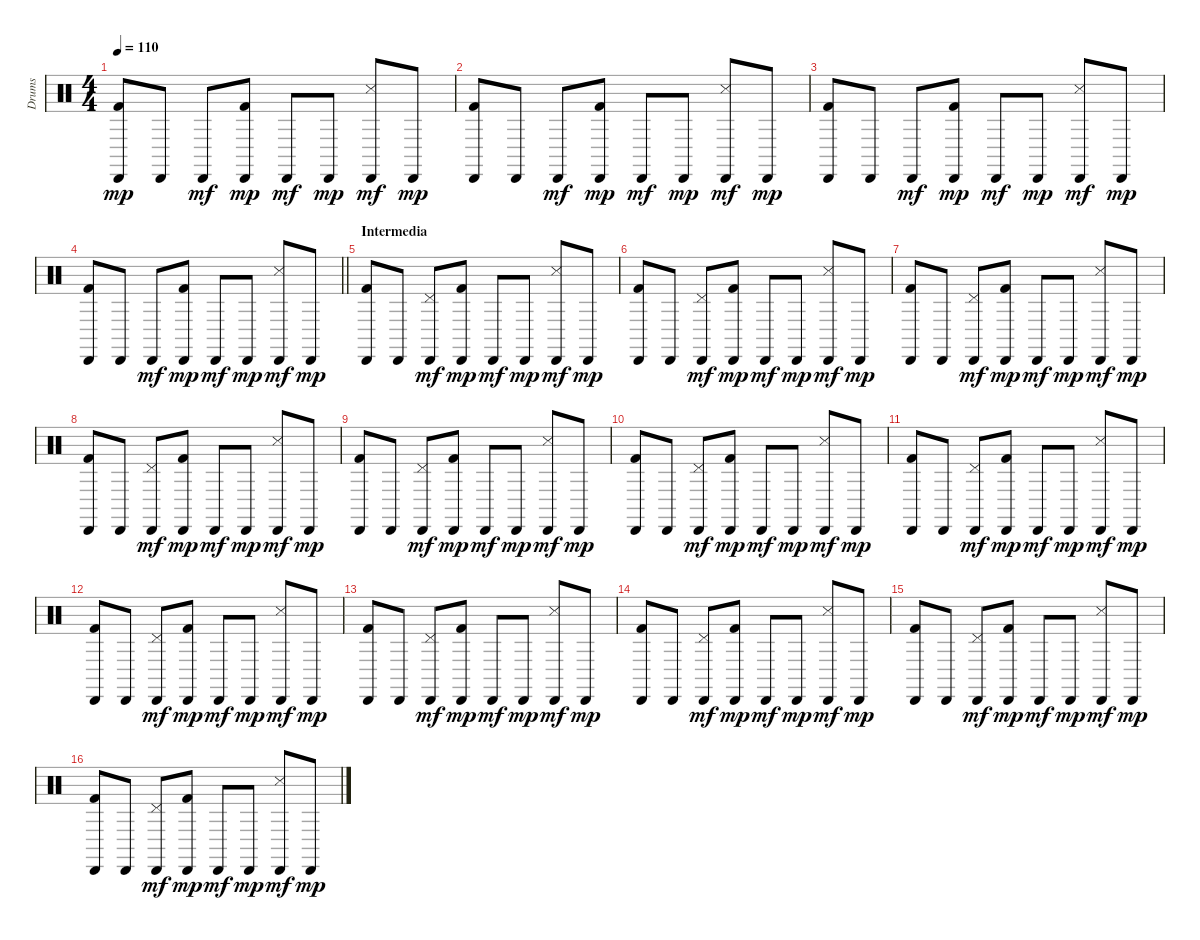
\track ("Drums" "Drums") {instrument percussion}
\staff {score}
\articulation defaults
\ts (4 4)
\tempo 110
\clef neutral
\ks c
("Cabasa (hit)" "Kick (hit) 2").8{dy mp} "Cabasa (hit)".8 "Cabasa (hit)".8{dy mf} ("Cabasa (hit)" "Kick (hit) 2").8{dy mp} "Cabasa (hit)".8{dy mf} "Cabasa (hit)".8{dy mp} ("Cabasa (hit)" "Snare (side stick) 3").8{dy mf} "Cabasa (hit)".8{dy mp} |
("Cabasa (hit)" "Kick (hit) 2").8 "Cabasa (hit)".8 "Cabasa (hit)".8{dy mf} ("Cabasa (hit)" "Kick (hit) 2").8{dy mp} "Cabasa (hit)".8{dy mf} "Cabasa (hit)".8{dy mp} ("Cabasa (hit)" "Snare (side stick) 3").8{dy mf} "Cabasa (hit)".8{dy mp} |
("Cabasa (hit)" "Kick (hit) 2").8 "Cabasa (hit)".8 "Cabasa (hit)".8{dy mf} ("Cabasa (hit)" "Kick (hit) 2").8{dy mp} "Cabasa (hit)".8{dy mf} "Cabasa (hit)".8{dy mp} ("Cabasa (hit)" "Snare (side stick) 3").8{dy mf} "Cabasa (hit)".8{dy mp} |
\barLineRight lightlight
("Cabasa (hit)" "Kick (hit) 2").8 "Cabasa (hit)".8 "Cabasa (hit)".8{dy mf} ("Cabasa (hit)" "Kick (hit) 2").8{dy mp} "Cabasa (hit)".8{dy mf} "Cabasa (hit)".8{dy mp} ("Cabasa (hit)" "Snare (side stick) 3").8{dy mf} "Cabasa (hit)".8{dy mp} |
\section ("" "Intermedia")
("Cabasa (hit)" "Kick (hit) 2").8 "Cabasa (hit)".8 ("Cabasa (hit)" "Pedal Hi-Hat (hit)").8{dy mf} ("Cabasa (hit)" "Kick (hit) 2").8{dy mp} "Cabasa (hit)".8{dy mf} "Cabasa (hit)".8{dy mp} ("Cabasa (hit)" "Snare (side stick) 3").8{dy mf} "Cabasa (hit)".8{dy mp} |
("Cabasa (hit)" "Kick (hit) 2").8 "Cabasa (hit)".8 ("Cabasa (hit)" "Pedal Hi-Hat (hit)").8{dy mf} ("Cabasa (hit)" "Kick (hit) 2").8{dy mp} "Cabasa (hit)".8{dy mf} "Cabasa (hit)".8{dy mp} ("Cabasa (hit)" "Snare (side stick) 3").8{dy mf} "Cabasa (hit)".8{dy mp} |
("Cabasa (hit)" "Kick (hit) 2").8 "Cabasa (hit)".8 ("Cabasa (hit)" "Pedal Hi-Hat (hit)").8{dy mf} ("Cabasa (hit)" "Kick (hit) 2").8{dy mp} "Cabasa (hit)".8{dy mf} "Cabasa (hit)".8{dy mp} ("Cabasa (hit)" "Snare (side stick) 3").8{dy mf} "Cabasa (hit)".8{dy mp} |
("Cabasa (hit)" "Kick (hit) 2").8 "Cabasa (hit)".8 ("Cabasa (hit)" "Pedal Hi-Hat (hit)").8{dy mf} ("Cabasa (hit)" "Kick (hit) 2").8{dy mp} "Cabasa (hit)".8{dy mf} "Cabasa (hit)".8{dy mp} ("Cabasa (hit)" "Snare (side stick) 3").8{dy mf} "Cabasa (hit)".8{dy mp} |
("Cabasa (hit)" "Kick (hit) 2").8 "Cabasa (hit)".8 ("Cabasa (hit)" "Pedal Hi-Hat (hit)").8{dy mf} ("Cabasa (hit)" "Kick (hit) 2").8{dy mp} "Cabasa (hit)".8{dy mf} "Cabasa (hit)".8{dy mp} ("Cabasa (hit)" "Snare (side stick) 3").8{dy mf} "Cabasa (hit)".8{dy mp} |
("Cabasa (hit)" "Kick (hit) 2").8 "Cabasa (hit)".8 ("Cabasa (hit)" "Pedal Hi-Hat (hit)").8{dy mf} ("Cabasa (hit)" "Kick (hit) 2").8{dy mp} "Cabasa (hit)".8{dy mf} "Cabasa (hit)".8{dy mp} ("Cabasa (hit)" "Snare (side stick) 3").8{dy mf} "Cabasa (hit)".8{dy mp} |
("Cabasa (hit)" "Kick (hit) 2").8 "Cabasa (hit)".8 ("Cabasa (hit)" "Pedal Hi-Hat (hit)").8{dy mf} ("Cabasa (hit)" "Kick (hit) 2").8{dy mp} "Cabasa (hit)".8{dy mf} "Cabasa (hit)".8{dy mp} ("Cabasa (hit)" "Snare (side stick) 3").8{dy mf} "Cabasa (hit)".8{dy mp} |
("Cabasa (hit)" "Kick (hit) 2").8 "Cabasa (hit)".8 ("Cabasa (hit)" "Pedal Hi-Hat (hit)").8{dy mf} ("Cabasa (hit)" "Kick (hit) 2").8{dy mp} "Cabasa (hit)".8{dy mf} "Cabasa (hit)".8{dy mp} ("Cabasa (hit)" "Snare (side stick) 3").8{dy mf} "Cabasa (hit)".8{dy mp} |
("Cabasa (hit)" "Kick (hit) 2").8 "Cabasa (hit)".8 ("Cabasa (hit)" "Pedal Hi-Hat (hit)").8{dy mf} ("Cabasa (hit)" "Kick (hit) 2").8{dy mp} "Cabasa (hit)".8{dy mf} "Cabasa (hit)".8{dy mp} ("Cabasa (hit)" "Snare (side stick) 3").8{dy mf} "Cabasa (hit)".8{dy mp} |
("Cabasa (hit)" "Kick (hit) 2").8 "Cabasa (hit)".8 ("Cabasa (hit)" "Pedal Hi-Hat (hit)").8{dy mf} ("Cabasa (hit)" "Kick (hit) 2").8{dy mp} "Cabasa (hit)".8{dy mf} "Cabasa (hit)".8{dy mp} ("Cabasa (hit)" "Snare (side stick) 3").8{dy mf} "Cabasa (hit)".8{dy mp} |
("Cabasa (hit)" "Kick (hit) 2").8 "Cabasa (hit)".8 ("Cabasa (hit)" "Pedal Hi-Hat (hit)").8{dy mf} ("Cabasa (hit)" "Kick (hit) 2").8{dy mp} "Cabasa (hit)".8{dy mf} "Cabasa (hit)".8{dy mp} ("Cabasa (hit)" "Snare (side stick) 3").8{dy mf} "Cabasa (hit)".8{dy mp} |
("Cabasa (hit)" "Kick (hit) 2").8 "Cabasa (hit)".8 ("Cabasa (hit)" "Pedal Hi-Hat (hit)").8{dy mf} ("Cabasa (hit)" "Kick (hit) 2").8{dy mp} "Cabasa (hit)".8{dy mf} "Cabasa (hit)".8{dy mp} ("Cabasa (hit)" "Snare (side stick) 3").8{dy mf} "Cabasa (hit)".8{dy mp}
